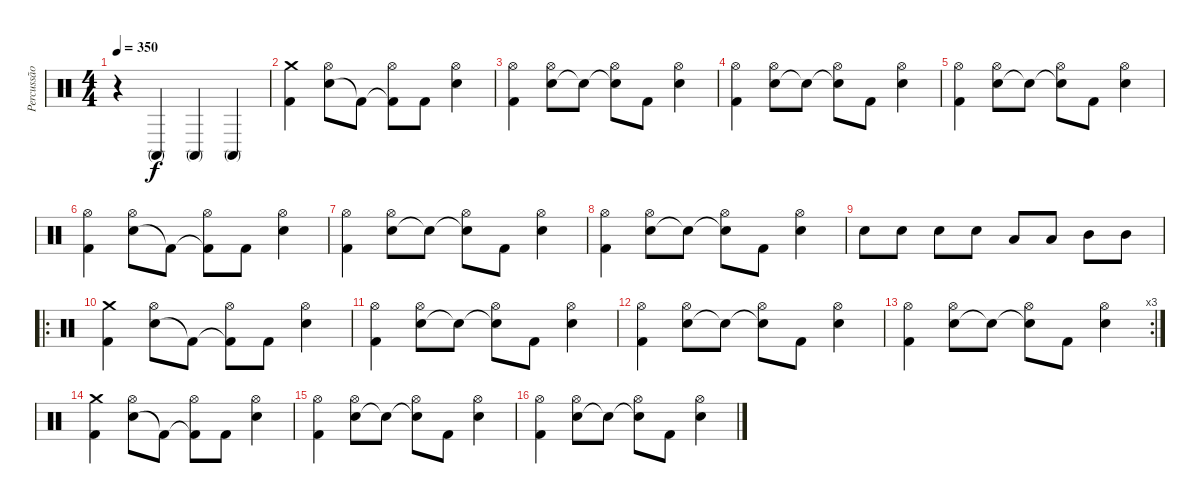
\track ("Percussão" "Percussão") {instrument percussion}
\staff {score}
\articulation defaults
\ts (4 4)
\tempo 350
\clef neutral
\ks c
r.4{dy f volume 16} "Conga high (mute)".4 "Conga high (mute)".4 "Conga high (mute)".4 |
("Kick (hit) 2" "Crash medium (hit)").4{volume 13} ("Electric Snare (hit)" "Hi-Hat (open)").8 "Kick (hit) 2"{t}.8 ("Kick (hit) 2"{t} "Hi-Hat (open)").8 "Kick (hit) 2".8 ("Electric Snare (hit)" "Hi-Hat (open)").4 |
("Kick (hit) 2" "Hi-Hat (open)").4 ("Electric Snare (hit)" "Hi-Hat (open)").8 "Snare (hit)"{t}.8 ("Snare (hit)"{t} "Hi-Hat (open)").8 "Kick (hit) 2".8 ("Electric Snare (hit)" "Hi-Hat (open)").4 |
("Kick (hit) 2" "Hi-Hat (open)").4 ("Electric Snare (hit)" "Hi-Hat (open)").8 "Snare (hit)"{t}.8 ("Snare (hit)"{t} "Hi-Hat (open)").8 "Kick (hit) 2".8 ("Electric Snare (hit)" "Hi-Hat (open)").4 |
("Kick (hit) 2" "Hi-Hat (open)").4 ("Electric Snare (hit)" "Hi-Hat (open)").8 "Snare (hit)"{t}.8 ("Snare (hit)"{t} "Hi-Hat (open)").8 "Kick (hit) 2".8 ("Electric Snare (hit)" "Hi-Hat (open)").4 |
("Kick (hit) 2" "Hi-Hat (open)").4 ("Electric Snare (hit)" "Hi-Hat (open)").8 "Kick (hit) 2"{t}.8 ("Kick (hit) 2"{t} "Hi-Hat (open)").8 "Kick (hit) 2".8 ("Electric Snare (hit)" "Hi-Hat (open)").4 |
("Kick (hit) 2" "Hi-Hat (open)").4 ("Electric Snare (hit)" "Hi-Hat (open)").8 "Snare (hit)"{t}.8 ("Snare (hit)"{t} "Hi-Hat (open)").8 "Kick (hit) 2".8 ("Electric Snare (hit)" "Hi-Hat (open)").4 |
("Kick (hit) 2" "Hi-Hat (open)").4 ("Electric Snare (hit)" "Hi-Hat (open)").8 "Snare (hit)"{t}.8 ("Snare (hit)"{t} "Hi-Hat (open)").8 "Kick (hit) 2".8 ("Electric Snare (hit)" "Hi-Hat (open)").4 |
"Electric Snare (hit)".8 "Electric Snare (hit)".8 "Electric Snare (hit)".8 "Electric Snare (hit)".8 "Low Tom (hit)".8 "Low Tom (hit)".8 "Mid Tom (hit)".8 "Mid Tom (hit)".8 |
\ro
("Kick (hit) 2" "Crash medium (hit)").4{volume 13} ("Electric Snare (hit)" "Hi-Hat (open)").8 "Kick (hit) 2"{t}.8 ("Kick (hit) 2"{t} "Hi-Hat (open)").8 "Kick (hit) 2".8 ("Electric Snare (hit)" "Hi-Hat (open)").4 |
("Kick (hit) 2" "Hi-Hat (open)").4 ("Electric Snare (hit)" "Hi-Hat (open)").8 "Snare (hit)"{t}.8 ("Snare (hit)"{t} "Hi-Hat (open)").8 "Kick (hit) 2".8 ("Electric Snare (hit)" "Hi-Hat (open)").4 |
("Kick (hit) 2" "Hi-Hat (open)").4 ("Electric Snare (hit)" "Hi-Hat (open)").8 "Snare (hit)"{t}.8 ("Snare (hit)"{t} "Hi-Hat (open)").8 "Kick (hit) 2".8 ("Electric Snare (hit)" "Hi-Hat (open)").4 |
\rc 3
("Kick (hit) 2" "Hi-Hat (open)").4 ("Electric Snare (hit)" "Hi-Hat (open)").8 "Snare (hit)"{t}.8 ("Snare (hit)"{t} "Hi-Hat (open)").8 "Kick (hit) 2".8 ("Electric Snare (hit)" "Hi-Hat (open)").4 |
("Kick (hit) 2" "Crash medium (hit)").4{volume 13} ("Electric Snare (hit)" "Hi-Hat (open)").8 "Kick (hit) 2"{t}.8 ("Kick (hit) 2"{t} "Hi-Hat (open)").8 "Kick (hit) 2".8 ("Electric Snare (hit)" "Hi-Hat (open)").4 |
("Kick (hit) 2" "Hi-Hat (open)").4 ("Electric Snare (hit)" "Hi-Hat (open)").8 "Snare (hit)"{t}.8 ("Snare (hit)"{t} "Hi-Hat (open)").8 "Kick (hit) 2".8 ("Electric Snare (hit)" "Hi-Hat (open)").4 |
("Kick (hit) 2" "Hi-Hat (open)").4 ("Electric Snare (hit)" "Hi-Hat (open)").8 "Snare (hit)"{t}.8 ("Snare (hit)"{t} "Hi-Hat (open)").8 "Kick (hit) 2".8 ("Electric Snare (hit)" "Hi-Hat (open)").4
